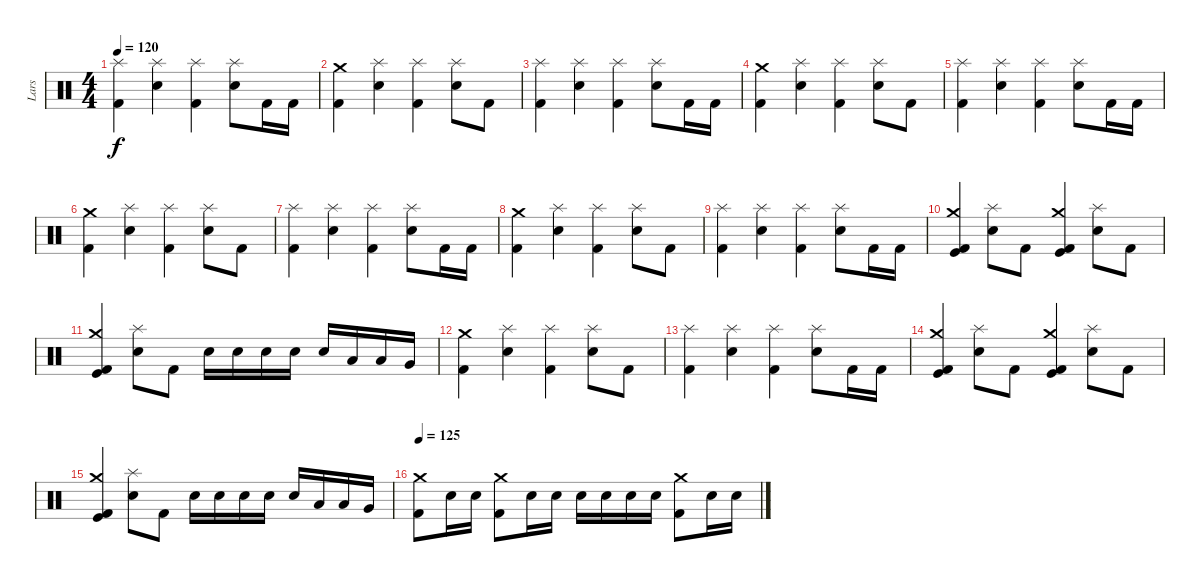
\track ("Lars" "Lars") {instrument percussion}
\staff {score}
\articulation defaults
\ts (4 4)
\tempo 120
\clef neutral
\ks c
("Splash (hit)" "Kick (hit) 2").4{dy f} ("Splash (hit)" "Snare (hit) 2").4 ("Splash (hit)" "Kick (hit) 2").4 ("Splash (hit)" "Snare (hit) 2").8 "Kick (hit) 2".16 "Kick (hit) 2".16 |
("Crash medium (hit)" "Kick (hit) 2").4 ("Splash (hit)" "Snare (hit) 2").4 ("Splash (hit)" "Kick (hit) 2").4 ("Splash (hit)" "Snare (hit) 2").8 "Kick (hit) 2".8 |
("Splash (hit)" "Kick (hit) 2").4 ("Splash (hit)" "Snare (hit) 2").4 ("Splash (hit)" "Kick (hit) 2").4 ("Splash (hit)" "Snare (hit) 2").8 "Kick (hit) 2".16 "Kick (hit) 2".16 |
("Crash medium (hit)" "Kick (hit) 2").4 ("Splash (hit)" "Snare (hit) 2").4 ("Splash (hit)" "Kick (hit) 2").4 ("Splash (hit)" "Snare (hit) 2").8 "Kick (hit) 2".8 |
("Splash (hit)" "Kick (hit) 2").4 ("Splash (hit)" "Snare (hit) 2").4 ("Splash (hit)" "Kick (hit) 2").4 ("Splash (hit)" "Snare (hit) 2").8 "Kick (hit) 2".16 "Kick (hit) 2".16 |
("Crash medium (hit)" "Kick (hit) 2").4 ("Splash (hit)" "Snare (hit) 2").4 ("Splash (hit)" "Kick (hit) 2").4 ("Splash (hit)" "Snare (hit) 2").8 "Kick (hit) 2".8 |
("Splash (hit)" "Kick (hit) 2").4 ("Splash (hit)" "Snare (hit) 2").4 ("Splash (hit)" "Kick (hit) 2").4 ("Splash (hit)" "Snare (hit) 2").8 "Kick (hit) 2".16 "Kick (hit) 2".16 |
("Crash medium (hit)" "Kick (hit) 2").4 ("Splash (hit)" "Snare (hit) 2").4 ("Splash (hit)" "Kick (hit) 2").4 ("Splash (hit)" "Snare (hit) 2").8 "Kick (hit) 2".8 |
("Splash (hit)" "Kick (hit) 2").4 ("Splash (hit)" "Snare (hit) 2").4 ("Splash (hit)" "Kick (hit) 2").4 ("Splash (hit)" "Snare (hit) 2").8 "Kick (hit) 2".16 "Kick (hit) 2".16 |
("Crash medium (hit)" "Kick (hit) 2" "Kick (hit)").4 ("Splash (hit)" "Snare (hit) 2").8 "Kick (hit) 2".8 ("Crash medium (hit)" "Kick (hit) 2" "Kick (hit)").4 ("Splash (hit)" "Snare (hit) 2").8 "Kick (hit) 2".8 |
("Crash medium (hit)" "Kick (hit) 2" "Kick (hit)").4 ("Splash (hit)" "Snare (hit) 2").8 "Kick (hit) 2".8 "Snare (hit) 2".16 "Snare (hit) 2".16 "Snare (hit) 2".16 "Snare (hit) 2".16 "Snare (hit) 2".16 "Low Tom (hit)".16 "Low Tom (hit)".16 "Very Low Tom (hit)".16 |
("Crash medium (hit)" "Kick (hit) 2").4 ("Splash (hit)" "Snare (hit) 2").4 ("Splash (hit)" "Kick (hit) 2").4 ("Splash (hit)" "Snare (hit) 2").8 "Kick (hit) 2".8 |
("Splash (hit)" "Kick (hit) 2").4 ("Splash (hit)" "Snare (hit) 2").4 ("Splash (hit)" "Kick (hit) 2").4 ("Splash (hit)" "Snare (hit) 2").8 "Kick (hit) 2".16 "Kick (hit) 2".16 |
("Crash medium (hit)" "Kick (hit) 2" "Kick (hit)").4 ("Splash (hit)" "Snare (hit) 2").8 "Kick (hit) 2".8 ("Crash medium (hit)" "Kick (hit) 2" "Kick (hit)").4 ("Splash (hit)" "Snare (hit) 2").8 "Kick (hit) 2".8 |
("Crash medium (hit)" "Kick (hit) 2" "Kick (hit)").4 ("Splash (hit)" "Snare (hit) 2").8 "Kick (hit) 2".8 "Snare (hit) 2".16 "Snare (hit) 2".16 "Snare (hit) 2".16 "Snare (hit) 2".16 "Snare (hit) 2".16 "Low Tom (hit)".16 "Low Tom (hit)".16 "Very Low Tom (hit)".16 |
\tempo 125
("Crash medium (hit)" "Kick (hit) 2").8 "Snare (hit) 2".16 "Snare (hit) 2".16 ("Crash medium (hit)" "Kick (hit) 2").8 "Snare (hit) 2".16 "Snare (hit) 2".16 "Snare (hit) 2".16 "Snare (hit) 2".16 "Snare (hit) 2".16 "Snare (hit) 2".16 ("Crash medium (hit)" "Kick (hit) 2").8 "Snare (hit) 2".16 "Snare (hit) 2".16
